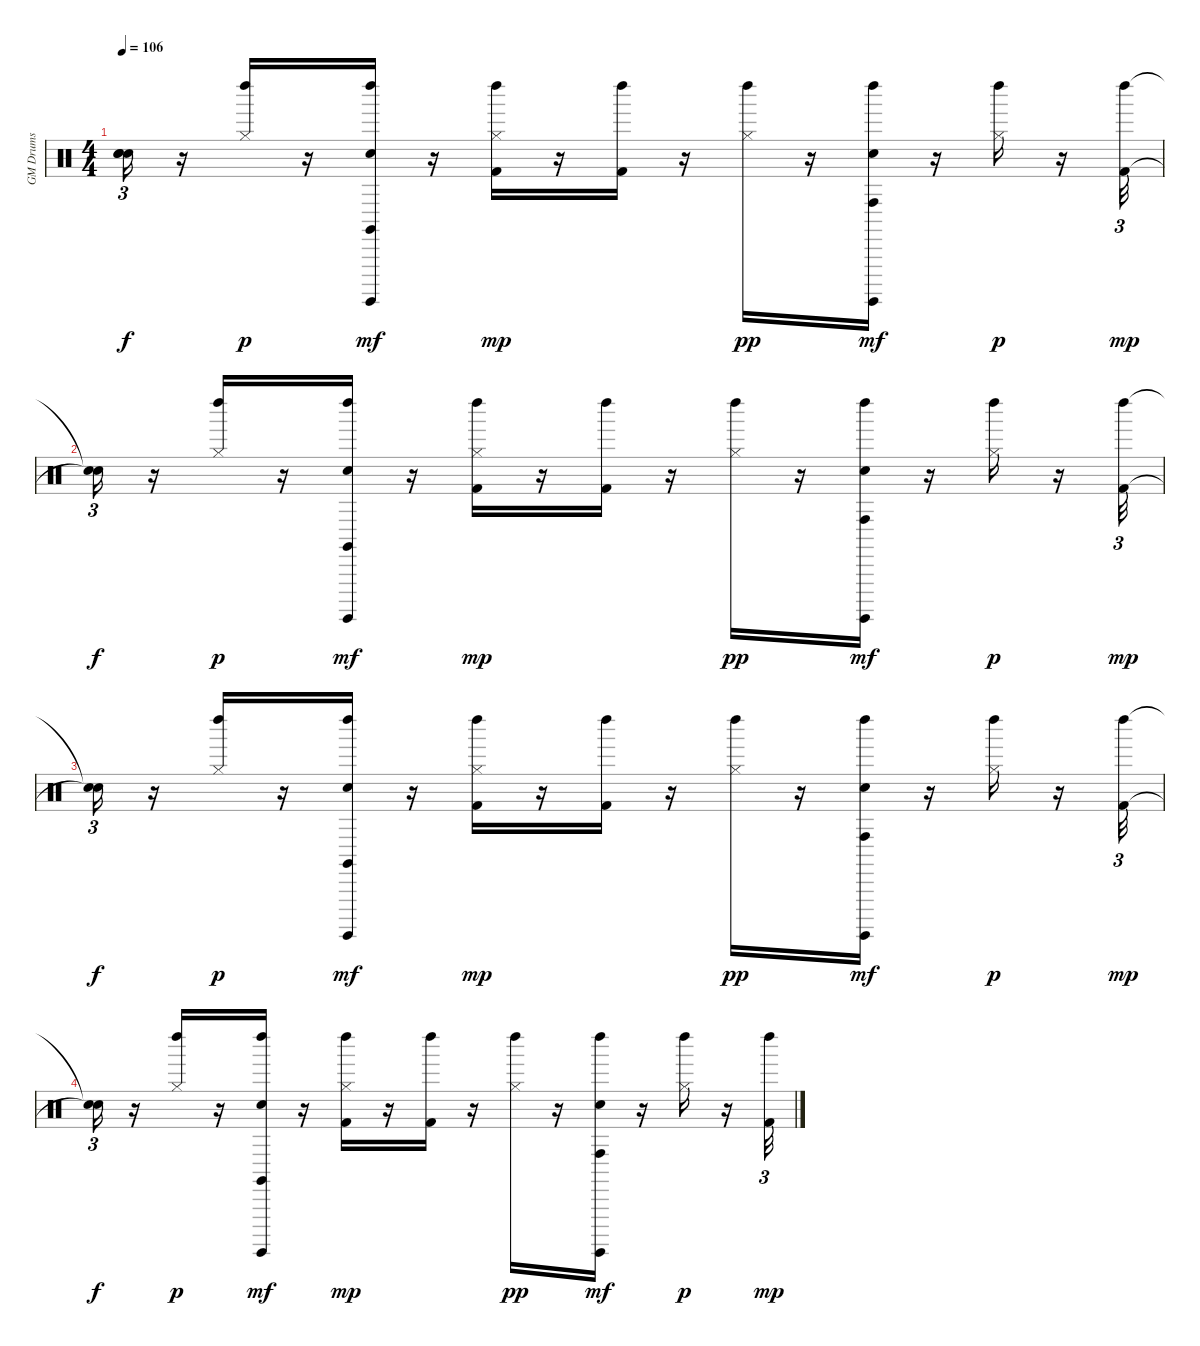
\track ("GM Drums" "GM Drums") {instrument percussion}
\staff {score}
\articulation defaults
\ts (4 4)
\tempo 106
\clef neutral
\ks c
("Snare (hit)"{t} "Snare (hit)"{t} "Snare (hit)"{t}).16{tu (3 2) dy f} r.16 ("Hi-Hat (closed)" "Left Maraca (hit)").16{dy p} r.16 ("Hand Clap (hit)" "Left Maraca (hit)" "Claves (hit)" "Surdo (hit)").16{dy mf} r.16 ("Kick (hit) 2" "Hi-Hat (closed)" "Left Maraca (hit)").16{dy mp} r.16 ("Kick (hit) 2" "Left Maraca (hit)").16 r.16 ("Hi-Hat (closed)" "Left Maraca (hit)").16{dy pp} r.16 ("Hand Clap (hit)" "Conga high (hit)" "Left Maraca (hit)" "Surdo (hit)").16{dy mf} r.16 ("Hi-Hat (closed)" "Left Maraca (hit)").16{dy p} r.16 ("Kick (hit) 2" "Left Maraca (hit)").32{tu (3 2) dy mp} |
("Snare (hit)"{t} "Snare (hit)"{t}).16{tu (3 2) dy f} r.16 ("Hi-Hat (closed)" "Left Maraca (hit)").16{dy p} r.16 ("Hand Clap (hit)" "Left Maraca (hit)" "Claves (hit)" "Surdo (hit)").16{dy mf} r.16 ("Kick (hit) 2" "Hi-Hat (closed)" "Left Maraca (hit)").16{dy mp} r.16 ("Kick (hit) 2" "Left Maraca (hit)").16 r.16 ("Hi-Hat (closed)" "Left Maraca (hit)").16{dy pp} r.16 ("Hand Clap (hit)" "Conga high (hit)" "Left Maraca (hit)" "Surdo (hit)").16{dy mf} r.16 ("Hi-Hat (closed)" "Left Maraca (hit)").16{dy p} r.16 ("Kick (hit) 2" "Left Maraca (hit)").32{tu (3 2) dy mp} |
("Snare (hit)"{t} "Snare (hit)"{t}).16{tu (3 2) dy f} r.16 ("Hi-Hat (closed)" "Left Maraca (hit)").16{dy p} r.16 ("Hand Clap (hit)" "Left Maraca (hit)" "Claves (hit)" "Surdo (hit)").16{dy mf} r.16 ("Kick (hit) 2" "Hi-Hat (closed)" "Left Maraca (hit)").16{dy mp} r.16 ("Kick (hit) 2" "Left Maraca (hit)").16 r.16 ("Hi-Hat (closed)" "Left Maraca (hit)").16{dy pp} r.16 ("Hand Clap (hit)" "Conga high (hit)" "Left Maraca (hit)" "Surdo (hit)").16{dy mf} r.16 ("Hi-Hat (closed)" "Left Maraca (hit)").16{dy p} r.16 ("Kick (hit) 2" "Left Maraca (hit)").32{tu (3 2) dy mp} |
("Snare (hit)"{t} "Snare (hit)"{t}).16{tu (3 2) dy f} r.16 ("Hi-Hat (closed)" "Left Maraca (hit)").16{dy p} r.16 ("Hand Clap (hit)" "Left Maraca (hit)" "Claves (hit)" "Surdo (hit)").16{dy mf} r.16 ("Kick (hit) 2" "Hi-Hat (closed)" "Left Maraca (hit)").16{dy mp} r.16 ("Kick (hit) 2" "Left Maraca (hit)").16 r.16 ("Hi-Hat (closed)" "Left Maraca (hit)").16{dy pp} r.16 ("Hand Clap (hit)" "Conga high (hit)" "Left Maraca (hit)" "Surdo (hit)").16{dy mf} r.16 ("Hi-Hat (closed)" "Left Maraca (hit)").16{dy p} r.16 ("Kick (hit) 2" "Left Maraca (hit)").32{tu (3 2) dy mp}
